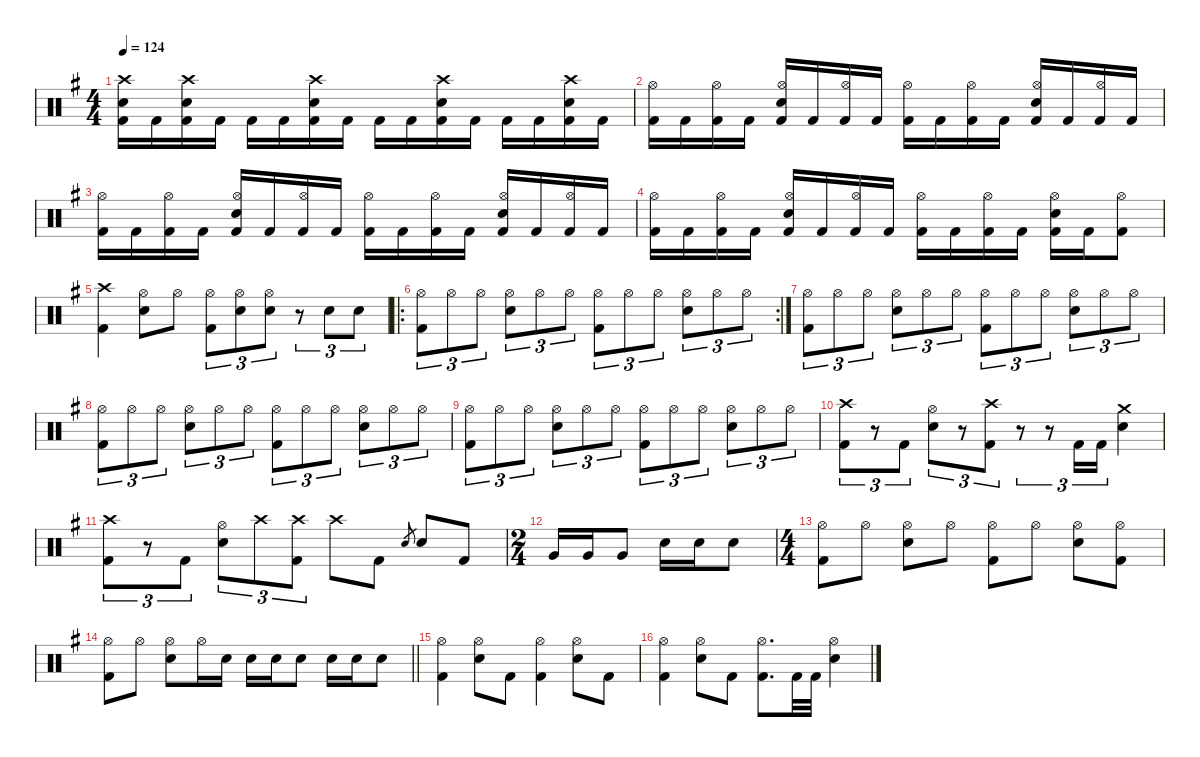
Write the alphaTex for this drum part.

\defaultSystemsLayout 4
\hideDynamics
\bracketExtendMode nobrackets
\singleTrackTrackNamePolicy hidden
\multiTrackTrackNamePolicy hidden
\otherSystemsTrackNameOrientation horizontal
\track ("Drums" "drm.") {defaultSystemsLayout 4 instrument percussion}
\staff {score}
\articulation defaults
\ts (4 4)
\tempo 124
\clef neutral
\ks g
("Crash high (hit)"{acc forcenatural} "Snare (hit) 2"{acc forcenatural} "Kick (hit) 2"{acc forcenatural}).16{dy mf beam Down} "Kick (hit) 2"{acc forcenatural}.16{dy ff beam Down} ("Crash high (hit)"{acc forcenatural} "Snare (hit) 2"{acc forcenatural} "Kick (hit) 2"{acc forcenatural}).16{dy mf beam Down} "Kick (hit) 2"{acc forcenatural}.16{dy ff beam Down} "Kick (hit) 2"{acc forcenatural}.16{dy mf beam Down} "Kick (hit) 2"{acc forcenatural}.16{beam Down} ("Crash high (hit)"{acc forcenatural} "Snare (hit) 2"{acc forcenatural} "Kick (hit) 2"{acc forcenatural}).16{beam Down} "Kick (hit) 2"{acc forcenatural}.16{dy ff beam Down} "Kick (hit) 2"{acc forcenatural}.16{dy mf beam Down} "Kick (hit) 2"{acc forcenatural}.16{beam Down} ("Crash high (hit)"{acc forcenatural} "Snare (hit) 2"{acc forcenatural} "Kick (hit) 2"{acc forcenatural}).16{beam Down} "Kick (hit) 2"{acc forcenatural}.16{dy ff beam Down} "Kick (hit) 2"{acc forcenatural}.16{dy mf beam Down} "Kick (hit) 2"{acc forcenatural}.16{beam Down} ("Crash high (hit)"{acc forcenatural} "Snare (hit) 2"{acc forcenatural} "Kick (hit) 2"{acc forcenatural}).16{beam Down} "Kick (hit) 2"{acc forcenatural}.16{dy ff beam Down} |
("Hi-Hat (open)"{acc forcenatural} "Kick (hit) 2"{acc forcenatural}).16{dy mf beam Down} "Kick (hit) 2"{acc forcenatural}.16{dy ff beam Down} ("Hi-Hat (open)"{acc forcenatural} "Kick (hit) 2"{acc forcenatural}).16{dy mf beam Down} "Kick (hit) 2"{acc forcenatural}.16{dy ff beam Down} ("Hi-Hat (open)"{acc forcenatural} "Snare (hit) 2"{acc forcenatural} "Kick (hit) 2"{acc forcenatural}).16{dy mf beam Up} "Kick (hit) 2"{acc forcenatural}.16{dy ff beam Up} ("Hi-Hat (open)"{acc forcenatural} "Kick (hit) 2"{acc forcenatural}).16{dy mf beam Up} "Kick (hit) 2"{acc forcenatural}.16{dy ff beam Up} ("Hi-Hat (open)"{acc forcenatural} "Kick (hit) 2"{acc forcenatural}).16{dy mf beam Down} "Kick (hit) 2"{acc forcenatural}.16{dy ff beam Down} ("Hi-Hat (open)"{acc forcenatural} "Kick (hit) 2"{acc forcenatural}).16{dy mf beam Down} "Kick (hit) 2"{acc forcenatural}.16{dy ff beam Down} ("Hi-Hat (open)"{acc forcenatural} "Snare (hit) 2"{acc forcenatural} "Kick (hit) 2"{acc forcenatural}).16{dy mf beam Up} "Kick (hit) 2"{acc forcenatural}.16{dy ff beam Up} ("Hi-Hat (open)"{acc forcenatural} "Kick (hit) 2"{acc forcenatural}).16{dy mf beam Up} "Kick (hit) 2"{acc forcenatural}.16{dy ff beam Up} |
("Hi-Hat (open)"{acc forcenatural} "Kick (hit) 2"{acc forcenatural}).16{dy mf beam Down} "Kick (hit) 2"{acc forcenatural}.16{dy ff beam Down} ("Hi-Hat (open)"{acc forcenatural} "Kick (hit) 2"{acc forcenatural}).16{dy mf beam Down} "Kick (hit) 2"{acc forcenatural}.16{dy ff beam Down} ("Hi-Hat (open)"{acc forcenatural} "Snare (hit) 2"{acc forcenatural} "Kick (hit) 2"{acc forcenatural}).16{dy mf beam Up} "Kick (hit) 2"{acc forcenatural}.16{dy ff beam Up} ("Hi-Hat (open)"{acc forcenatural} "Kick (hit) 2"{acc forcenatural}).16{dy mf beam Up} "Kick (hit) 2"{acc forcenatural}.16{dy ff beam Up} ("Hi-Hat (open)"{acc forcenatural} "Kick (hit) 2"{acc forcenatural}).16{dy mf beam Down} "Kick (hit) 2"{acc forcenatural}.16{dy ff beam Down} ("Hi-Hat (open)"{acc forcenatural} "Kick (hit) 2"{acc forcenatural}).16{dy mf beam Down} "Kick (hit) 2"{acc forcenatural}.16{dy ff beam Down} ("Hi-Hat (open)"{acc forcenatural} "Snare (hit) 2"{acc forcenatural} "Kick (hit) 2"{acc forcenatural}).16{dy mf beam Up} "Kick (hit) 2"{acc forcenatural}.16{dy ff beam Up} ("Hi-Hat (open)"{acc forcenatural} "Kick (hit) 2"{acc forcenatural}).16{dy mf beam Up} "Kick (hit) 2"{acc forcenatural}.16{dy ff beam Up} |
("Hi-Hat (open)"{acc forcenatural} "Kick (hit) 2"{acc forcenatural}).16{dy mf beam Down} "Kick (hit) 2"{acc forcenatural}.16{dy ff beam Down} ("Hi-Hat (open)"{acc forcenatural} "Kick (hit) 2"{acc forcenatural}).16{dy mf beam Down} "Kick (hit) 2"{acc forcenatural}.16{dy ff beam Down} ("Hi-Hat (open)"{acc forcenatural} "Snare (hit) 2"{acc forcenatural} "Kick (hit) 2"{acc forcenatural}).16{dy mf beam Up} "Kick (hit) 2"{acc forcenatural}.16{dy ff beam Up} ("Hi-Hat (open)"{acc forcenatural} "Kick (hit) 2"{acc forcenatural}).16{dy mf beam Up} "Kick (hit) 2"{acc forcenatural}.16{dy ff beam Up} ("Hi-Hat (open)"{acc forcenatural} "Kick (hit) 2"{acc forcenatural}).16{dy mf beam Down} "Kick (hit) 2"{acc forcenatural}.16{dy ff beam Down} ("Hi-Hat (open)"{acc forcenatural} "Kick (hit) 2"{acc forcenatural}).16{dy mf beam Down} "Kick (hit) 2"{acc forcenatural}.16{dy ff beam Down} ("Hi-Hat (open)"{acc forcenatural} "Snare (hit) 2"{acc forcenatural} "Kick (hit) 2"{acc forcenatural}).16{dy mf beam Down} "Kick (hit) 2"{acc forcenatural}.16{dy ff beam Down} ("Hi-Hat (open)"{acc forcenatural} "Kick (hit) 2"{acc forcenatural}).8{dy mf beam Down} |
("Crash high (hit)"{acc forcenatural} "Kick (hit) 2"{acc forcenatural}).4{beam Down} ("Hi-Hat (open)"{acc forcenatural} "Snare (hit) 2"{acc forcenatural}).8{beam Down} "Hi-Hat (open)"{acc forcenatural}.8{beam Down} ("Hi-Hat (open)"{acc forcenatural} "Kick (hit) 2"{acc forcenatural}).8{tu (3 2) beam Down} ("Hi-Hat (open)"{acc forcenatural} "Snare (hit) 2"{acc forcenatural}).8{tu (3 2) beam Down} ("Hi-Hat (open)"{acc forcenatural} "Snare (hit) 2"{acc forcenatural}).8{tu (3 2) beam Down} r.8{tu (3 2) beam Down} "Snare (hit) 2"{acc forcenatural}.8{tu (3 2) dy ff beam Down} "Snare (hit) 2"{acc forcenatural}.8{tu (3 2) beam Down} |
\ro
\rc 2
("Hi-Hat (open)"{acc forcenatural} "Kick (hit) 2"{acc forcenatural}).8{tu (3 2) dy mp beam Down} "Hi-Hat (open)"{acc forcenatural}.8{tu (3 2) beam Down} "Hi-Hat (open)"{acc forcenatural}.8{tu (3 2) beam Down} ("Hi-Hat (open)"{acc forcenatural} "Snare (hit) 2"{acc forcenatural}).8{tu (3 2) beam Down} "Hi-Hat (open)"{acc forcenatural}.8{tu (3 2) beam Down} "Hi-Hat (open)"{acc forcenatural}.8{tu (3 2) beam Down} ("Hi-Hat (open)"{acc forcenatural} "Kick (hit) 2"{acc forcenatural}).8{tu (3 2) beam Down} "Hi-Hat (open)"{acc forcenatural}.8{tu (3 2) beam Down} "Hi-Hat (open)"{acc forcenatural}.8{tu (3 2) beam Down} ("Hi-Hat (open)"{acc forcenatural} "Snare (hit) 2"{acc forcenatural}).8{tu (3 2) beam Down} "Hi-Hat (open)"{acc forcenatural}.8{tu (3 2) beam Down} "Hi-Hat (open)"{acc forcenatural}.8{tu (3 2) beam Down} |
("Hi-Hat (open)"{acc forcenatural} "Kick (hit) 2"{acc forcenatural}).8{tu (3 2) beam Down} "Hi-Hat (open)"{acc forcenatural}.8{tu (3 2) beam Down} "Hi-Hat (open)"{acc forcenatural}.8{tu (3 2) beam Down} ("Hi-Hat (open)"{acc forcenatural} "Snare (hit) 2"{acc forcenatural}).8{tu (3 2) beam Down} "Hi-Hat (open)"{acc forcenatural}.8{tu (3 2) beam Down} "Hi-Hat (open)"{acc forcenatural}.8{tu (3 2) beam Down} ("Hi-Hat (open)"{acc forcenatural} "Kick (hit) 2"{acc forcenatural}).8{tu (3 2) beam Down} "Hi-Hat (open)"{acc forcenatural}.8{tu (3 2) beam Down} "Hi-Hat (open)"{acc forcenatural}.8{tu (3 2) beam Down} ("Hi-Hat (open)"{acc forcenatural} "Snare (hit) 2"{acc forcenatural}).8{tu (3 2) beam Down} "Hi-Hat (open)"{acc forcenatural}.8{tu (3 2) beam Down} "Hi-Hat (open)"{acc forcenatural}.8{tu (3 2) beam Down} |
("Hi-Hat (open)"{acc forcenatural} "Kick (hit) 2"{acc forcenatural}).8{tu (3 2) beam Down} "Hi-Hat (open)"{acc forcenatural}.8{tu (3 2) beam Down} "Hi-Hat (open)"{acc forcenatural}.8{tu (3 2) beam Down} ("Hi-Hat (open)"{acc forcenatural} "Snare (hit) 2"{acc forcenatural}).8{tu (3 2) beam Down} "Hi-Hat (open)"{acc forcenatural}.8{tu (3 2) beam Down} "Hi-Hat (open)"{acc forcenatural}.8{tu (3 2) beam Down} ("Hi-Hat (open)"{acc forcenatural} "Kick (hit) 2"{acc forcenatural}).8{tu (3 2) beam Down} "Hi-Hat (open)"{acc forcenatural}.8{tu (3 2) beam Down} "Hi-Hat (open)"{acc forcenatural}.8{tu (3 2) beam Down} ("Hi-Hat (open)"{acc forcenatural} "Snare (hit) 2"{acc forcenatural}).8{tu (3 2) beam Down} "Hi-Hat (open)"{acc forcenatural}.8{tu (3 2) beam Down} "Hi-Hat (open)"{acc forcenatural}.8{tu (3 2) beam Down} |
("Hi-Hat (open)"{acc forcenatural} "Kick (hit) 2"{acc forcenatural}).8{tu (3 2) beam Down} "Hi-Hat (open)"{acc forcenatural}.8{tu (3 2) beam Down} "Hi-Hat (open)"{acc forcenatural}.8{tu (3 2) beam Down} ("Hi-Hat (open)"{acc forcenatural} "Snare (hit) 2"{acc forcenatural}).8{tu (3 2) beam Down} "Hi-Hat (open)"{acc forcenatural}.8{tu (3 2) beam Down} "Hi-Hat (open)"{acc forcenatural}.8{tu (3 2) beam Down} ("Hi-Hat (open)"{acc forcenatural} "Kick (hit) 2"{acc forcenatural}).8{tu (3 2) beam Down} "Hi-Hat (open)"{acc forcenatural}.8{tu (3 2) beam Down} "Hi-Hat (open)"{acc forcenatural}.8{tu (3 2) beam Down} ("Hi-Hat (open)"{acc forcenatural} "Snare (hit) 2"{acc forcenatural}).8{tu (3 2) beam Down} "Hi-Hat (open)"{acc forcenatural}.8{tu (3 2) beam Down} "Hi-Hat (open)"{acc forcenatural}.8{tu (3 2) beam Down} |
("Crash high (hit)"{acc forcenatural} "Kick (hit) 2"{acc forcenatural}).8{tu (3 2) beam Down} r.8{tu (3 2) beam Down} "Kick (hit) 2"{acc forcenatural}.8{tu (3 2) dy ff beam Down} ("Hi-Hat (open)"{acc forcenatural} "Snare (hit) 2"{acc forcenatural}).8{tu (3 2) dy mf beam Down} r.8{tu (3 2) beam Down} ("Crash high (hit)"{acc forcenatural} "Kick (hit) 2"{acc forcenatural}).8{tu (3 2) beam Down} r.8{tu (3 2) beam Down} r.8{tu (3 2) beam Down} "Kick (hit) 2"{acc forcenatural}.16{tu (3 2) dy ff beam Up} "Kick (hit) 2"{acc forcenatural}.16{tu (3 2) beam Up} ("Crash medium (hit)"{acc forcenatural} "Snare (hit) 2"{acc forcenatural}).4{dy mf beam Down} |
("Crash high (hit)"{acc forcenatural} "Kick (hit) 2"{acc forcenatural}).8{tu (3 2) beam Down} r.8{tu (3 2) beam Down} "Kick (hit) 2"{acc forcenatural}.8{tu (3 2) dy ff beam Down} ("Hi-Hat (open)"{acc forcenatural} "Snare (hit) 2"{acc forcenatural}).8{tu (3 2) dy mf beam Down} "Crash high (hit)"{acc forcenatural}.8{tu (3 2) dy ppp beam Down} ("Crash high (hit)"{acc forcenatural} "Kick (hit) 2"{acc forcenatural}).8{tu (3 2) dy mf beam Down} "Crash high (hit)"{acc forcenatural}.8{dy ppp beam Down} "Kick (hit) 2"{acc forcenatural}.8{dy ff beam Down} "Electric Snare (hit)"{acc forcenatural}.8{gr dy mp beam Up} "Snare (hit) 2"{acc forcenatural}.8{dy ff beam Up} "Kick (hit) 2"{acc forcenatural}.8{beam Up} |
\ts (2 4)
\beaming (8 2 2)
"Very Low Tom (hit)"{acc forcenatural}.16{dy f beam Up} "Very Low Tom (hit)"{acc forcenatural}.16{beam Up} "Very Low Tom (hit)"{acc forcenatural}.8{beam Up} "Snare (hit) 2"{acc forcenatural}.16{dy ff beam Down} "Snare (hit) 2"{acc forcenatural}.16{beam Down} "Snare (hit) 2"{acc forcenatural}.8{beam Down} |
\ts (4 4)
\beaming (8 2 2 2 2)
("Hi-Hat (open)"{acc forcenatural} "Kick (hit) 2"{acc forcenatural}).8{dy mf beam Down} "Hi-Hat (open)"{acc forcenatural}.8{beam Down} ("Hi-Hat (open)"{acc forcenatural} "Snare (hit) 2"{acc forcenatural}).8{beam Down} "Hi-Hat (open)"{acc forcenatural}.8{beam Down} ("Hi-Hat (open)"{acc forcenatural} "Kick (hit) 2"{acc forcenatural}).8{beam Down} "Hi-Hat (open)"{acc forcenatural}.8{beam Down} ("Hi-Hat (open)"{acc forcenatural} "Snare (hit) 2"{acc forcenatural}).8{beam Down} ("Hi-Hat (open)"{acc forcenatural} "Kick (hit) 2"{acc forcenatural}).8{beam Down} |
\barLineRight lightlight
("Hi-Hat (open)"{acc forcenatural} "Kick (hit) 2"{acc forcenatural}).8{beam Down} "Hi-Hat (open)"{acc forcenatural}.8{beam Down} ("Hi-Hat (open)"{acc forcenatural} "Snare (hit) 2"{acc forcenatural}).8{beam Down} "Hi-Hat (open)"{acc forcenatural}.16{beam Down} "Snare (hit) 2"{acc forcenatural}.16{dy ff beam Down} "Snare (hit) 2"{acc forcenatural}.16{beam Down} "Snare (hit) 2"{acc forcenatural}.16{beam Down} "Snare (hit) 2"{acc forcenatural}.8{beam Down} "Snare (hit) 2"{acc forcenatural}.16{beam Down} "Snare (hit) 2"{acc forcenatural}.16{beam Down} "Snare (hit) 2"{acc forcenatural}.8{beam Down} |
("Hi-Hat (open)"{acc forcenatural} "Kick (hit) 2"{acc forcenatural}).4{dy mf beam Down} ("Hi-Hat (open)"{acc forcenatural} "Snare (hit) 2"{acc forcenatural}).8{beam Down} "Kick (hit) 2"{acc forcenatural}.8{dy ff beam Down} ("Hi-Hat (open)"{acc forcenatural} "Kick (hit) 2"{acc forcenatural}).4{dy mf beam Down} ("Hi-Hat (open)"{acc forcenatural} "Snare (hit) 2"{acc forcenatural}).8{beam Down} "Kick (hit) 2"{acc forcenatural}.8{dy ff beam Down} |
("Hi-Hat (open)"{acc forcenatural} "Kick (hit) 2"{acc forcenatural}).4{dy mf beam Down} ("Hi-Hat (open)"{acc forcenatural} "Snare (hit) 2"{acc forcenatural}).8{beam Down} "Kick (hit) 2"{acc forcenatural}.8{dy ff beam Down} ("Hi-Hat (open)"{acc forcenatural} "Kick (hit) 2"{acc forcenatural}).8{d dy mf beam Down} "Kick (hit) 2"{acc forcenatural}.32{dy ff beam Down} "Kick (hit) 2"{acc forcenatural}.32{beam Down} ("Hi-Hat (open)"{acc forcenatural} "Snare (hit) 2"{acc forcenatural}).4{dy mf beam Down}
